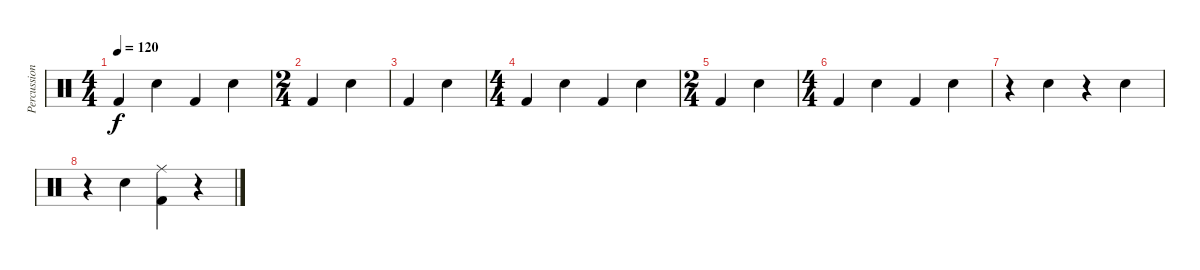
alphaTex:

\track ("Percussion" "Percussion") {instrument percussion}
\staff {score}
\articulation defaults
\ts (4 4)
\tempo 120
\clef neutral
\ks c "Kick (hit) 2".4{dy f} "Snare (hit) 2".4 "Kick (hit) 2".4 "Snare (hit) 2".4
|
\ts (2 4)
"Kick (hit) 2".4 "Snare (hit) 2".4 |
"Kick (hit) 2".4 "Snare (hit) 2".4 |
\ts (4 4)
"Kick (hit) 2".4 "Snare (hit) 2".4 "Kick (hit) 2".4 "Snare (hit) 2".4 |
\ts (2 4)
"Kick (hit) 2".4 "Snare (hit) 2".4 |
\ts (4 4)
"Kick (hit) 2".4 "Snare (hit) 2".4 "Kick (hit) 2".4 "Snare (hit) 2".4 |
r.4 "Snare (hit) 2".4 r.4 "Snare (hit) 2".4 |
r.4 "Snare (hit) 2".4 ("Ride (middle)" "Kick (hit) 2").4 r.4
